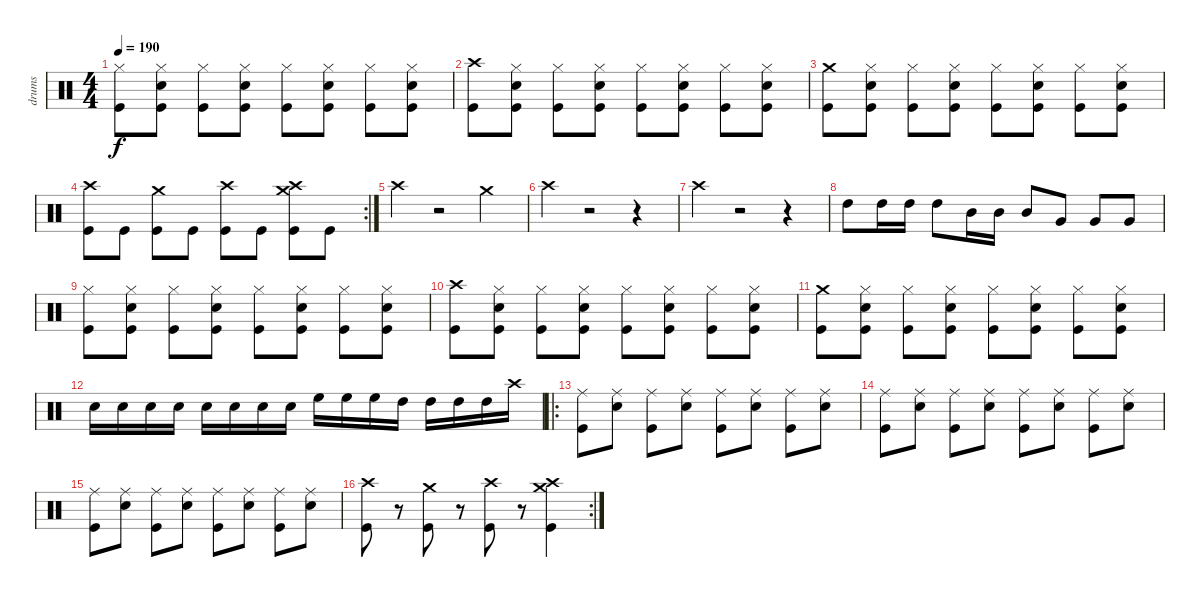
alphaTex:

\track ("drums" "drums") {instrument percussion}
\staff {score}
\articulation defaults
\ts (4 4)
\tempo 190
\clef neutral
\ks c
("Hi-Hat (closed)" "Kick (hit)").8{dy f} ("Hi-Hat (closed)" "Snare (hit) 2" "Kick (hit)").8 ("Hi-Hat (closed)" "Kick (hit)").8 ("Hi-Hat (closed)" "Snare (hit) 2" "Kick (hit)").8 ("Hi-Hat (closed)" "Kick (hit)").8 ("Hi-Hat (closed)" "Snare (hit) 2" "Kick (hit)").8 ("Hi-Hat (closed)" "Kick (hit)").8 ("Hi-Hat (closed)" "Snare (hit) 2" "Kick (hit)").8 |
("Crash high (hit)" "Kick (hit)").8 ("Hi-Hat (closed)" "Snare (hit) 2" "Kick (hit)").8 ("Hi-Hat (closed)" "Kick (hit)").8 ("Hi-Hat (closed)" "Snare (hit) 2" "Kick (hit)").8 ("Hi-Hat (closed)" "Kick (hit)").8 ("Hi-Hat (closed)" "Snare (hit) 2" "Kick (hit)").8 ("Hi-Hat (closed)" "Kick (hit)").8 ("Hi-Hat (closed)" "Snare (hit) 2" "Kick (hit)").8 |
("Crash medium (hit)" "Kick (hit)").8 ("Hi-Hat (closed)" "Snare (hit) 2" "Kick (hit)").8 ("Hi-Hat (closed)" "Kick (hit)").8 ("Hi-Hat (closed)" "Snare (hit) 2" "Kick (hit)").8 ("Hi-Hat (closed)" "Kick (hit)").8 ("Hi-Hat (closed)" "Snare (hit) 2" "Kick (hit)").8 ("Hi-Hat (closed)" "Kick (hit)").8 ("Hi-Hat (closed)" "Snare (hit) 2" "Kick (hit)").8 |
\rc 2
("Crash high (hit)" "Kick (hit)").8 "Kick (hit)".8 ("Crash medium (hit)" "Kick (hit)").8 "Kick (hit)".8 ("Crash high (hit)" "Kick (hit)").8 "Kick (hit)".8 ("Crash high (hit)" "Crash medium (hit)" "Kick (hit)").8 "Kick (hit)".8 |
"Crash high (hit)".4 r.2 "Crash medium (hit)".4 |
"Crash high (hit)".4 r.2 r.4 |
"Crash high (hit)".4 r.2 r.4 |
"High Tom (hit)".8 "High Tom (hit)".16 "High Tom (hit)".16 "High Tom (hit)".8 "Mid Tom (hit)".16 "Mid Tom (hit)".16 "Mid Tom (hit)".8 "Very Low Tom (hit)".8 "Very Low Tom (hit)".8 "Very Low Tom (hit)".8 |
("Hi-Hat (closed)" "Kick (hit)").8 ("Hi-Hat (closed)" "Snare (hit) 2" "Kick (hit)").8 ("Hi-Hat (closed)" "Kick (hit)").8 ("Hi-Hat (closed)" "Snare (hit) 2" "Kick (hit)").8 ("Hi-Hat (closed)" "Kick (hit)").8 ("Hi-Hat (closed)" "Snare (hit) 2" "Kick (hit)").8 ("Hi-Hat (closed)" "Kick (hit)").8 ("Hi-Hat (closed)" "Snare (hit) 2" "Kick (hit)").8 |
("Crash high (hit)" "Kick (hit)").8 ("Hi-Hat (closed)" "Snare (hit) 2" "Kick (hit)").8 ("Hi-Hat (closed)" "Kick (hit)").8 ("Hi-Hat (closed)" "Snare (hit) 2" "Kick (hit)").8 ("Hi-Hat (closed)" "Kick (hit)").8 ("Hi-Hat (closed)" "Snare (hit) 2" "Kick (hit)").8 ("Hi-Hat (closed)" "Kick (hit)").8 ("Hi-Hat (closed)" "Snare (hit) 2" "Kick (hit)").8 |
("Crash medium (hit)" "Kick (hit)").8 ("Hi-Hat (closed)" "Snare (hit) 2" "Kick (hit)").8 ("Hi-Hat (closed)" "Kick (hit)").8 ("Hi-Hat (closed)" "Snare (hit) 2" "Kick (hit)").8 ("Hi-Hat (closed)" "Kick (hit)").8 ("Hi-Hat (closed)" "Snare (hit) 2" "Kick (hit)").8 ("Hi-Hat (closed)" "Kick (hit)").8 ("Hi-Hat (closed)" "Snare (hit) 2" "Kick (hit)").8 |
"Snare (hit) 2".16 "Snare (hit) 2".16 "Snare (hit) 2".16 "Snare (hit) 2".16 "Snare (hit) 2".16 "Snare (hit) 2".16 "Snare (hit) 2".16 "Snare (hit) 2".16 "High Floor Tom (hit)".16 "High Floor Tom (hit)".16 "High Floor Tom (hit)".16 "High Tom (hit)".16 "High Tom (hit)".16 "High Tom (hit)".16 "High Tom (hit)".16 "Crash high (hit)".16 |
\ro
("Ride (middle)" "Kick (hit)").8 ("Ride (middle)" "Snare (hit) 2").8 ("Ride (middle)" "Kick (hit)").8 ("Ride (middle)" "Snare (hit) 2").8 ("Ride (middle)" "Kick (hit)").8 ("Ride (middle)" "Snare (hit) 2").8 ("Ride (middle)" "Kick (hit)").8 ("Ride (middle)" "Snare (hit) 2").8 |
("Ride (middle)" "Kick (hit)").8 ("Ride (middle)" "Snare (hit) 2").8 ("Ride (middle)" "Kick (hit)").8 ("Ride (middle)" "Snare (hit) 2").8 ("Ride (middle)" "Kick (hit)").8 ("Ride (middle)" "Snare (hit) 2").8 ("Ride (middle)" "Kick (hit)").8 ("Ride (middle)" "Snare (hit) 2").8 |
("Ride (middle)" "Kick (hit)").8 ("Ride (middle)" "Snare (hit) 2").8 ("Ride (middle)" "Kick (hit)").8 ("Ride (middle)" "Snare (hit) 2").8 ("Ride (middle)" "Kick (hit)").8 ("Ride (middle)" "Snare (hit) 2").8 ("Ride (middle)" "Kick (hit)").8 ("Ride (middle)" "Snare (hit) 2").8 |
\rc 2
("Crash high (hit)" "Kick (hit)").8 r.8 ("Crash medium (hit)" "Kick (hit)").8 r.8 ("Crash high (hit)" "Kick (hit)").8 r.8 ("Crash high (hit)" "Crash medium (hit)" "Kick (hit)").4
